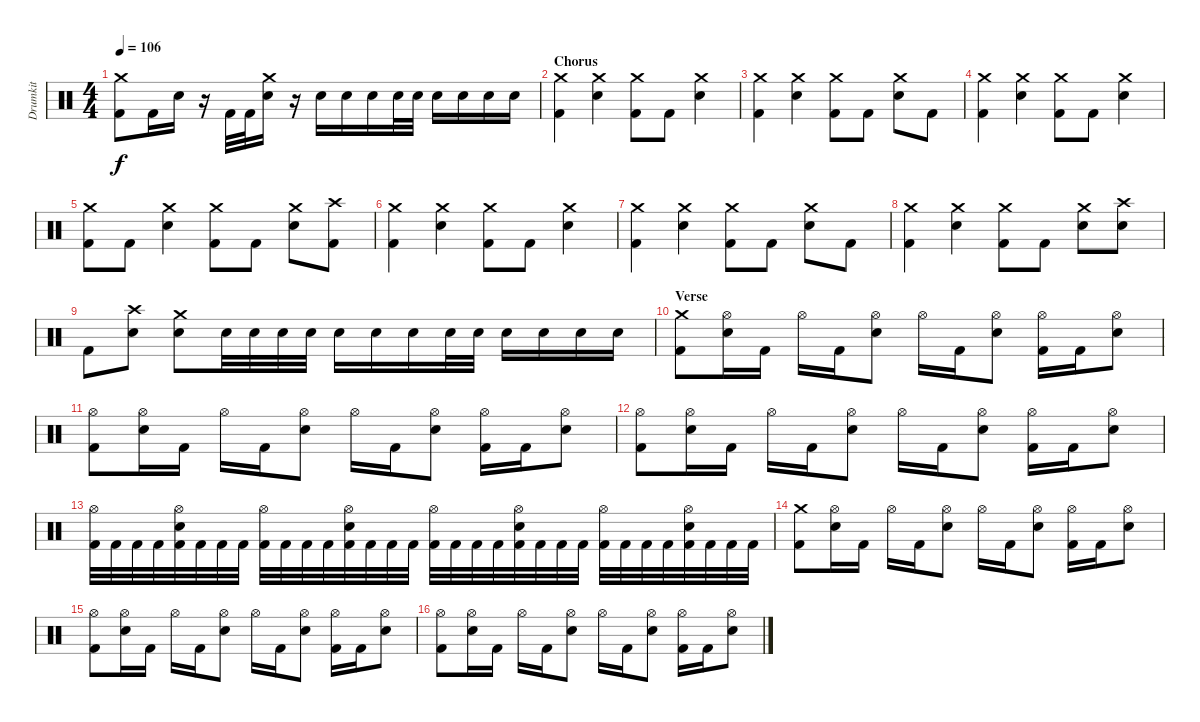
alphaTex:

\track ("Drumkit" "Drumkit") {instrument percussion}
\staff {score}
\articulation defaults
\ts (4 4)
\tempo 106
\clef neutral
\ks c
("Crash medium (hit)" "Kick (hit) 2").8{dy f} "Kick (hit) 2".16 "Snare (hit) 2".16 r.16 "Kick (hit) 2".32 "Kick (hit) 2".32 ("Crash medium (hit)" "Snare (hit) 2").16 r.16 "Snare (hit) 2".16 "Snare (hit) 2".16 "Snare (hit) 2".16 "Snare (hit) 2".32 "Snare (hit) 2".32 "Snare (hit) 2".16 "Snare (hit) 2".16 "Snare (hit) 2".16 "Snare (hit) 2".16 |
\section ("" "Chorus")
("Crash medium (hit)" "Kick (hit) 2").4 ("Crash medium (hit)" "Snare (hit) 2").4 ("Crash medium (hit)" "Kick (hit) 2").8 "Kick (hit) 2".8 ("Crash medium (hit)" "Snare (hit) 2").4 |
("Crash medium (hit)" "Kick (hit) 2").4 ("Crash medium (hit)" "Snare (hit) 2").4 ("Crash medium (hit)" "Kick (hit) 2").8 "Kick (hit) 2".8 ("Crash medium (hit)" "Snare (hit) 2").8 "Kick (hit) 2".8 |
("Crash medium (hit)" "Kick (hit) 2").4 ("Crash medium (hit)" "Snare (hit) 2").4 ("Crash medium (hit)" "Kick (hit) 2").8 "Kick (hit) 2".8 ("Crash medium (hit)" "Snare (hit) 2").4 |
("Crash medium (hit)" "Kick (hit) 2").8 "Kick (hit) 2".8 ("Crash medium (hit)" "Snare (hit) 2").4 ("Crash medium (hit)" "Kick (hit) 2").8 "Kick (hit) 2".8 ("Crash medium (hit)" "Snare (hit) 2").8 ("Crash high (hit)" "Kick (hit) 2").8 |
("Crash medium (hit)" "Kick (hit) 2").4 ("Crash medium (hit)" "Snare (hit) 2").4 ("Crash medium (hit)" "Kick (hit) 2").8 "Kick (hit) 2".8 ("Crash medium (hit)" "Snare (hit) 2").4 |
("Crash medium (hit)" "Kick (hit) 2").4 ("Crash medium (hit)" "Snare (hit) 2").4 ("Crash medium (hit)" "Kick (hit) 2").8 "Kick (hit) 2".8 ("Crash medium (hit)" "Snare (hit) 2").8 "Kick (hit) 2".8 |
("Crash medium (hit)" "Kick (hit) 2").4 ("Crash medium (hit)" "Snare (hit) 2").4 ("Crash medium (hit)" "Kick (hit) 2").8 "Kick (hit) 2".8 ("Crash medium (hit)" "Snare (hit) 2").8 ("Crash high (hit)" "Snare (hit) 2").8 |
"Kick (hit) 2".8 ("Crash high (hit)" "Snare (hit) 2").8 ("Crash medium (hit)" "Snare (hit) 2").8 "Snare (hit) 2".32 "Snare (hit) 2".32 "Snare (hit) 2".32 "Snare (hit) 2".32 "Snare (hit) 2".16 "Snare (hit) 2".16 "Snare (hit) 2".16 "Snare (hit) 2".32 "Snare (hit) 2".32 "Snare (hit) 2".16 "Snare (hit) 2".16 "Snare (hit) 2".16 "Snare (hit) 2".16 |
\section ("" "Verse")
("Crash medium (hit)" "Kick (hit) 2").8 ("Hi-Hat (open)" "Snare (hit) 2").16 "Kick (hit) 2".16 "Hi-Hat (open)".16 "Kick (hit) 2".16 ("Hi-Hat (open)" "Snare (hit) 2").8 "Hi-Hat (open)".16 "Kick (hit) 2".16 ("Hi-Hat (open)" "Snare (hit) 2").8 ("Hi-Hat (open)" "Kick (hit) 2").16 "Kick (hit) 2".16 ("Hi-Hat (open)" "Snare (hit) 2").8 |
("Hi-Hat (open)" "Kick (hit) 2").8 ("Hi-Hat (open)" "Snare (hit) 2").16 "Kick (hit) 2".16 "Hi-Hat (open)".16 "Kick (hit) 2".16 ("Hi-Hat (open)" "Snare (hit) 2").8 "Hi-Hat (open)".16 "Kick (hit) 2".16 ("Hi-Hat (open)" "Snare (hit) 2").8 ("Hi-Hat (open)" "Kick (hit) 2").16 "Kick (hit) 2".16 ("Hi-Hat (open)" "Snare (hit) 2").8 |
("Hi-Hat (open)" "Kick (hit) 2").8 ("Hi-Hat (open)" "Snare (hit) 2").16 "Kick (hit) 2".16 "Hi-Hat (open)".16 "Kick (hit) 2".16 ("Hi-Hat (open)" "Snare (hit) 2").8 "Hi-Hat (open)".16 "Kick (hit) 2".16 ("Hi-Hat (open)" "Snare (hit) 2").8 ("Hi-Hat (open)" "Kick (hit) 2").16 "Kick (hit) 2".16 ("Hi-Hat (open)" "Snare (hit) 2").8 |
("Hi-Hat (open)" "Kick (hit) 2").32 "Kick (hit) 2".32 "Kick (hit) 2".32 "Kick (hit) 2".32 ("Hi-Hat (open)" "Snare (hit) 2" "Kick (hit) 2").32 "Kick (hit) 2".32 "Kick (hit) 2".32 "Kick (hit) 2".32 ("Hi-Hat (open)" "Kick (hit) 2").32 "Kick (hit) 2".32 "Kick (hit) 2".32 "Kick (hit) 2".32 ("Hi-Hat (open)" "Snare (hit) 2" "Kick (hit) 2").32 "Kick (hit) 2".32 "Kick (hit) 2".32 "Kick (hit) 2".32 ("Hi-Hat (open)" "Kick (hit) 2").32 "Kick (hit) 2".32 "Kick (hit) 2".32 "Kick (hit) 2".32 ("Hi-Hat (open)" "Snare (hit) 2" "Kick (hit) 2").32 "Kick (hit) 2".32 "Kick (hit) 2".32 "Kick (hit) 2".32 ("Hi-Hat (open)" "Kick (hit) 2").32 "Kick (hit) 2".32 "Kick (hit) 2".32 "Kick (hit) 2".32 ("Hi-Hat (open)" "Snare (hit) 2" "Kick (hit) 2").32 "Kick (hit) 2".32 "Kick (hit) 2".32 "Kick (hit) 2".32 |
("Crash medium (hit)" "Kick (hit) 2").8 ("Hi-Hat (open)" "Snare (hit) 2").16 "Kick (hit) 2".16 "Hi-Hat (open)".16 "Kick (hit) 2".16 ("Hi-Hat (open)" "Snare (hit) 2").8 "Hi-Hat (open)".16 "Kick (hit) 2".16 ("Hi-Hat (open)" "Snare (hit) 2").8 ("Hi-Hat (open)" "Kick (hit) 2").16 "Kick (hit) 2".16 ("Hi-Hat (open)" "Snare (hit) 2").8 |
("Hi-Hat (open)" "Kick (hit) 2").8 ("Hi-Hat (open)" "Snare (hit) 2").16 "Kick (hit) 2".16 "Hi-Hat (open)".16 "Kick (hit) 2".16 ("Hi-Hat (open)" "Snare (hit) 2").8 "Hi-Hat (open)".16 "Kick (hit) 2".16 ("Hi-Hat (open)" "Snare (hit) 2").8 ("Hi-Hat (open)" "Kick (hit) 2").16 "Kick (hit) 2".16 ("Hi-Hat (open)" "Snare (hit) 2").8 |
("Hi-Hat (open)" "Kick (hit) 2").8 ("Hi-Hat (open)" "Snare (hit) 2").16 "Kick (hit) 2".16 "Hi-Hat (open)".16 "Kick (hit) 2".16 ("Hi-Hat (open)" "Snare (hit) 2").8 "Hi-Hat (open)".16 "Kick (hit) 2".16 ("Hi-Hat (open)" "Snare (hit) 2").8 ("Hi-Hat (open)" "Kick (hit) 2").16 "Kick (hit) 2".16 ("Hi-Hat (open)" "Snare (hit) 2").8
